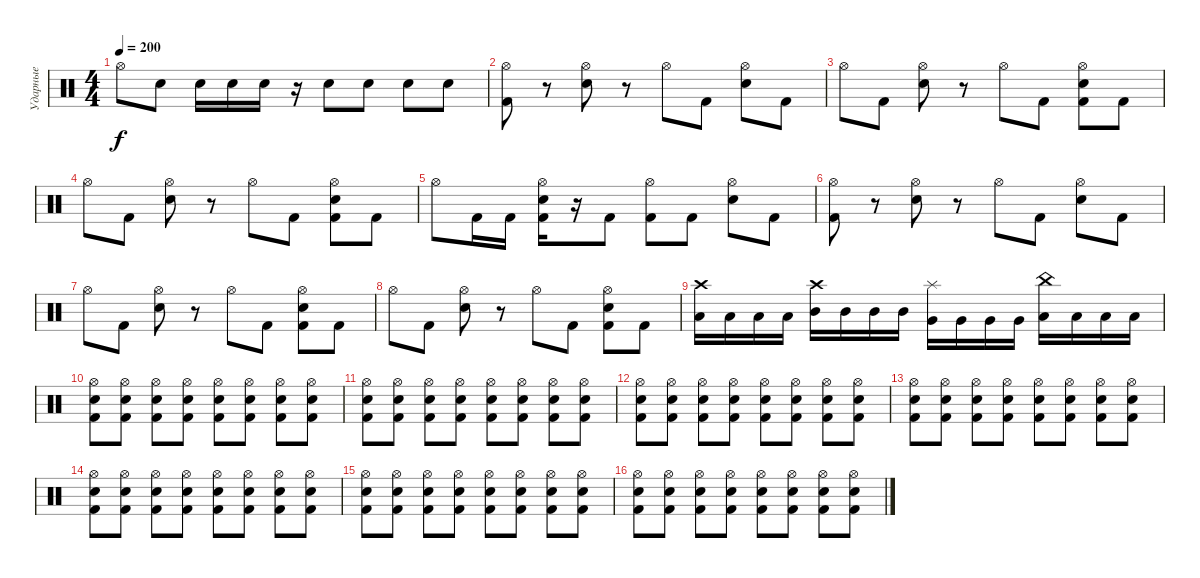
\track ("Ударные" "Ударные") {instrument percussion}
\staff {score}
\articulation defaults
\ts (4 4)
\tempo 200
\clef neutral
\ks c "Hi-Hat (open)".8{dy f} "Electric Snare (hit)".8 "Electric Snare (hit)".16 "Electric Snare (hit)".16 "Electric Snare (hit)".16
r.16 "Electric Snare (hit)".8 "Electric Snare (hit)".8 "Electric Snare (hit)".8 "Electric Snare (hit)".8 |
("Kick (hit) 2" "Hi-Hat (open)").8 r.8 ("Electric Snare (hit)" "Hi-Hat (open)").8 r.8 "Hi-Hat (open)".8 "Kick (hit) 2".8 ("Electric Snare (hit)" "Hi-Hat (open)").8 "Kick (hit) 2".8 |
"Hi-Hat (open)".8 "Kick (hit) 2".8 ("Electric Snare (hit)" "Hi-Hat (open)").8 r.8 "Hi-Hat (open)".8 "Kick (hit) 2".8 ("Kick (hit) 2" "Hi-Hat (open)" "Electric Snare (hit)").8 "Kick (hit) 2".8 |
"Hi-Hat (open)".8 "Kick (hit) 2".8 ("Electric Snare (hit)" "Hi-Hat (open)").8 r.8 "Hi-Hat (open)".8 "Kick (hit) 2".8 ("Kick (hit) 2" "Hi-Hat (open)" "Electric Snare (hit)").8 "Kick (hit) 2".8 |
"Hi-Hat (open)".8 "Kick (hit) 2".16 "Kick (hit) 2".16 ("Kick (hit) 2" "Electric Snare (hit)" "Hi-Hat (open)").16 r.16 "Kick (hit) 2".8 ("Kick (hit) 2" "Hi-Hat (open)").8 "Kick (hit) 2".8 ("Electric Snare (hit)" "Hi-Hat (open)").8 "Kick (hit) 2".8 |
("Kick (hit) 2" "Hi-Hat (open)").8 r.8 ("Electric Snare (hit)" "Hi-Hat (open)").8 r.8 "Hi-Hat (open)".8 "Kick (hit) 2".8 ("Electric Snare (hit)" "Hi-Hat (open)").8 "Kick (hit) 2".8 |
"Hi-Hat (open)".8 "Kick (hit) 2".8 ("Electric Snare (hit)" "Hi-Hat (open)").8 r.8 "Hi-Hat (open)".8 "Kick (hit) 2".8 ("Kick (hit) 2" "Hi-Hat (open)" "Electric Snare (hit)").8 "Kick (hit) 2".8 |
"Hi-Hat (open)".8 "Kick (hit) 2".8 ("Electric Snare (hit)" "Hi-Hat (open)").8 r.8 "Hi-Hat (open)".8 "Kick (hit) 2".8 ("Kick (hit) 2" "Hi-Hat (open)" "Electric Snare (hit)").8 "Kick (hit) 2".8 |
("Low Tom (hit)" "Crash high (hit)").16 "Low Tom (hit)".16 "Low Tom (hit)".16 "Low Tom (hit)".16 ("Mid Tom (hit)" "Crash high (hit)").16 "Mid Tom (hit)".16 "Mid Tom (hit)".16 "Mid Tom (hit)".16 ("Very Low Tom (hit)" "Splash (hit)").16 "Very Low Tom (hit)".16 "Very Low Tom (hit)".16 "Very Low Tom (hit)".16 ("Low Floor Tom (hit)" "China (hit)").16 "Low Floor Tom (hit)".16 "Low Floor Tom (hit)".16 "Low Floor Tom (hit)".16 |
("Kick (hit) 2" "Electric Snare (hit)" "Hi-Hat (open)").8 ("Hi-Hat (open)" "Kick (hit) 2" "Electric Snare (hit)").8 ("Electric Snare (hit)" "Kick (hit) 2" "Hi-Hat (open)").8 ("Hi-Hat (open)" "Kick (hit) 2" "Electric Snare (hit)").8 ("Hi-Hat (open)" "Kick (hit) 2" "Electric Snare (hit)").8 ("Electric Snare (hit)" "Kick (hit) 2" "Hi-Hat (open)").8 ("Hi-Hat (open)" "Kick (hit) 2" "Electric Snare (hit)").8 ("Electric Snare (hit)" "Kick (hit) 2" "Hi-Hat (open)").8 |
("Kick (hit) 2" "Electric Snare (hit)" "Hi-Hat (open)").8 ("Hi-Hat (open)" "Kick (hit) 2" "Electric Snare (hit)").8 ("Electric Snare (hit)" "Kick (hit) 2" "Hi-Hat (open)").8 ("Hi-Hat (open)" "Kick (hit) 2" "Electric Snare (hit)").8 ("Hi-Hat (open)" "Kick (hit) 2" "Electric Snare (hit)").8 ("Electric Snare (hit)" "Kick (hit) 2" "Hi-Hat (open)").8 ("Hi-Hat (open)" "Kick (hit) 2" "Electric Snare (hit)").8 ("Electric Snare (hit)" "Kick (hit) 2" "Hi-Hat (open)").8 |
("Kick (hit) 2" "Electric Snare (hit)" "Hi-Hat (open)").8 ("Hi-Hat (open)" "Kick (hit) 2" "Electric Snare (hit)").8 ("Electric Snare (hit)" "Kick (hit) 2" "Hi-Hat (open)").8 ("Hi-Hat (open)" "Kick (hit) 2" "Electric Snare (hit)").8 ("Hi-Hat (open)" "Kick (hit) 2" "Electric Snare (hit)").8 ("Electric Snare (hit)" "Kick (hit) 2" "Hi-Hat (open)").8 ("Hi-Hat (open)" "Kick (hit) 2" "Electric Snare (hit)").8 ("Electric Snare (hit)" "Kick (hit) 2" "Hi-Hat (open)").8 |
("Kick (hit) 2" "Electric Snare (hit)" "Hi-Hat (open)").8 ("Hi-Hat (open)" "Kick (hit) 2" "Electric Snare (hit)").8 ("Electric Snare (hit)" "Kick (hit) 2" "Hi-Hat (open)").8 ("Hi-Hat (open)" "Kick (hit) 2" "Electric Snare (hit)").8 ("Hi-Hat (open)" "Kick (hit) 2" "Electric Snare (hit)").8 ("Electric Snare (hit)" "Kick (hit) 2" "Hi-Hat (open)").8 ("Hi-Hat (open)" "Kick (hit) 2" "Electric Snare (hit)").8 ("Electric Snare (hit)" "Kick (hit) 2" "Hi-Hat (open)").8 |
("Kick (hit) 2" "Electric Snare (hit)" "Hi-Hat (open)").8 ("Hi-Hat (open)" "Kick (hit) 2" "Electric Snare (hit)").8 ("Electric Snare (hit)" "Kick (hit) 2" "Hi-Hat (open)").8 ("Hi-Hat (open)" "Kick (hit) 2" "Electric Snare (hit)").8 ("Hi-Hat (open)" "Kick (hit) 2" "Electric Snare (hit)").8 ("Electric Snare (hit)" "Kick (hit) 2" "Hi-Hat (open)").8 ("Hi-Hat (open)" "Kick (hit) 2" "Electric Snare (hit)").8 ("Electric Snare (hit)" "Kick (hit) 2" "Hi-Hat (open)").8 |
("Kick (hit) 2" "Electric Snare (hit)" "Hi-Hat (open)").8 ("Hi-Hat (open)" "Kick (hit) 2" "Electric Snare (hit)").8 ("Electric Snare (hit)" "Kick (hit) 2" "Hi-Hat (open)").8 ("Hi-Hat (open)" "Kick (hit) 2" "Electric Snare (hit)").8 ("Hi-Hat (open)" "Kick (hit) 2" "Electric Snare (hit)").8 ("Electric Snare (hit)" "Kick (hit) 2" "Hi-Hat (open)").8 ("Hi-Hat (open)" "Kick (hit) 2" "Electric Snare (hit)").8 ("Electric Snare (hit)" "Kick (hit) 2" "Hi-Hat (open)").8 |
("Kick (hit) 2" "Electric Snare (hit)" "Hi-Hat (open)").8 ("Hi-Hat (open)" "Kick (hit) 2" "Electric Snare (hit)").8 ("Electric Snare (hit)" "Kick (hit) 2" "Hi-Hat (open)").8 ("Hi-Hat (open)" "Kick (hit) 2" "Electric Snare (hit)").8 ("Hi-Hat (open)" "Kick (hit) 2" "Electric Snare (hit)").8 ("Electric Snare (hit)" "Kick (hit) 2" "Hi-Hat (open)").8 ("Hi-Hat (open)" "Kick (hit) 2" "Electric Snare (hit)").8 ("Electric Snare (hit)" "Kick (hit) 2" "Hi-Hat (open)").8
